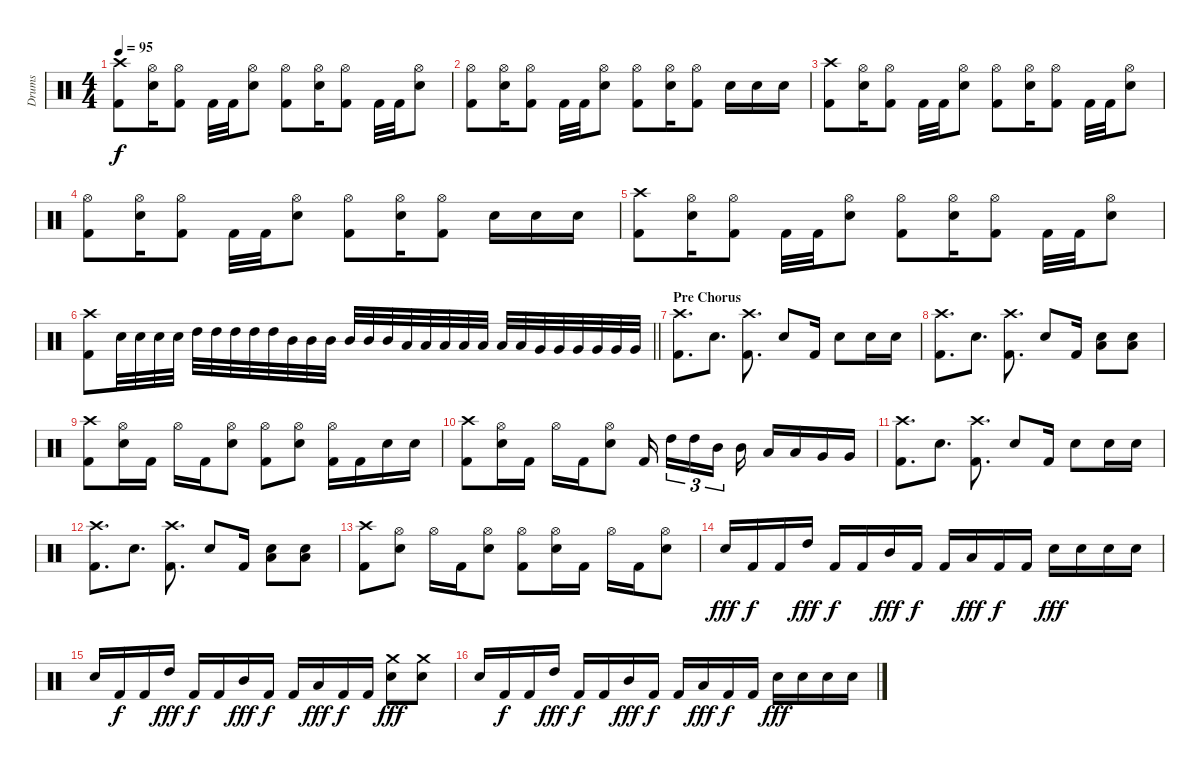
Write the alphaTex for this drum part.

\track ("Drums" "Drums") {instrument percussion}
\staff {score}
\articulation defaults
\ts (4 4)
\tempo 95
\clef neutral
\ks c
("Crash high (hit)" "Kick (hit) 2").8{dy f} ("Hi-Hat (open)" "Snare (hit) 2").16 ("Hi-Hat (open)" "Kick (hit) 2").8 "Kick (hit) 2".32 "Kick (hit) 2".32 ("Hi-Hat (open)" "Snare (hit) 2").8 ("Hi-Hat (open)" "Kick (hit) 2").8 ("Hi-Hat (open)" "Snare (hit) 2").16 ("Hi-Hat (open)" "Kick (hit) 2").8 "Kick (hit) 2".32 "Kick (hit) 2".32 ("Hi-Hat (open)" "Snare (hit) 2").8 |
("Hi-Hat (open)" "Kick (hit) 2").8 ("Hi-Hat (open)" "Snare (hit) 2").16 ("Hi-Hat (open)" "Kick (hit) 2").8 "Kick (hit) 2".32 "Kick (hit) 2".32 ("Hi-Hat (open)" "Snare (hit) 2").8 ("Hi-Hat (open)" "Kick (hit) 2").8 ("Hi-Hat (open)" "Snare (hit) 2").16 ("Hi-Hat (open)" "Kick (hit) 2").8 "Snare (hit) 2".16 "Snare (hit) 2".16 "Snare (hit) 2".16 |
("Crash high (hit)" "Kick (hit) 2").8 ("Hi-Hat (open)" "Snare (hit) 2").16 ("Hi-Hat (open)" "Kick (hit) 2").8 "Kick (hit) 2".32 "Kick (hit) 2".32 ("Hi-Hat (open)" "Snare (hit) 2").8 ("Hi-Hat (open)" "Kick (hit) 2").8 ("Hi-Hat (open)" "Snare (hit) 2").16 ("Hi-Hat (open)" "Kick (hit) 2").8 "Kick (hit) 2".32 "Kick (hit) 2".32 ("Hi-Hat (open)" "Snare (hit) 2").8 |
("Hi-Hat (open)" "Kick (hit) 2").8 ("Hi-Hat (open)" "Snare (hit) 2").16 ("Hi-Hat (open)" "Kick (hit) 2").8 "Kick (hit) 2".32 "Kick (hit) 2".32 ("Hi-Hat (open)" "Snare (hit) 2").8 ("Hi-Hat (open)" "Kick (hit) 2").8 ("Hi-Hat (open)" "Snare (hit) 2").16 ("Hi-Hat (open)" "Kick (hit) 2").8 "Snare (hit) 2".16 "Snare (hit) 2".16 "Snare (hit) 2".16 |
("Crash high (hit)" "Kick (hit) 2").8 ("Hi-Hat (open)" "Snare (hit) 2").16 ("Hi-Hat (open)" "Kick (hit) 2").8 "Kick (hit) 2".32 "Kick (hit) 2".32 ("Hi-Hat (open)" "Snare (hit) 2").8 ("Hi-Hat (open)" "Kick (hit) 2").8 ("Hi-Hat (open)" "Snare (hit) 2").16 ("Hi-Hat (open)" "Kick (hit) 2").8 "Kick (hit) 2".32 "Kick (hit) 2".32 ("Hi-Hat (open)" "Snare (hit) 2").8 |
\barLineRight lightlight
("Kick (hit) 2" "Crash high (hit)").8 "Snare (hit) 2".32 "Snare (hit) 2".32 "Snare (hit) 2".32 "Snare (hit) 2".32 "High Tom (hit)".32 "High Tom (hit)".32 "High Tom (hit)".32 "High Tom (hit)".32 "High Tom (hit)".32 "Mid Tom (hit)".32 "Mid Tom (hit)".32 "Mid Tom (hit)".32 "Mid Tom (hit)".32 "Mid Tom (hit)".32 "Mid Tom (hit)".32 "Low Tom (hit)".32 "Low Tom (hit)".32 "Low Tom (hit)".32 "Low Tom (hit)".32 "Low Tom (hit)".32 "Low Tom (hit)".32 "Low Tom (hit)".32 "Very Low Tom (hit)".32 "Very Low Tom (hit)".32 "Very Low Tom (hit)".32 "Very Low Tom (hit)".32 "Very Low Tom (hit)".32 "Very Low Tom (hit)".32 |
\section ("" "Pre Chorus")
("Kick (hit) 2" "Crash high (hit)").8{d} "Snare (hit) 2".8{d} ("Kick (hit) 2" "Crash high (hit)").8{d} "Snare (hit) 2".8 "Kick (hit) 2".16 "Snare (hit) 2".8 "Snare (hit) 2".16 "Snare (hit) 2".16 |
("Kick (hit) 2" "Crash high (hit)").8{d} "Snare (hit) 2".8{d} ("Kick (hit) 2" "Crash high (hit)").8{d} "Snare (hit) 2".8 "Kick (hit) 2".16 ("Snare (hit) 2" "Low Tom (hit)").8 ("Snare (hit) 2" "Low Tom (hit)").8 |
("Crash high (hit)" "Kick (hit) 2").8 ("Hi-Hat (open)" "Snare (hit) 2").16 "Kick (hit) 2".16 "Hi-Hat (open)".16 "Kick (hit) 2".16 ("Hi-Hat (open)" "Snare (hit) 2").8 ("Hi-Hat (open)" "Kick (hit) 2").8 ("Hi-Hat (open)" "Snare (hit) 2").8 ("Hi-Hat (open)" "Kick (hit) 2").16 "Kick (hit) 2".16 "Snare (hit) 2".16 "Snare (hit) 2".16 |
("Crash high (hit)" "Kick (hit) 2").8 ("Hi-Hat (open)" "Snare (hit) 2").16 "Kick (hit) 2".16 "Hi-Hat (open)".16 "Kick (hit) 2".16 ("Hi-Hat (open)" "Snare (hit) 2").8 "Kick (hit) 2".16{beam splitsecondary} "High Tom (hit)".16{tu (3 2)} "High Tom (hit)".16{tu (3 2)} "Mid Tom (hit)".16{tu (3 2) beam splitsecondary} "Mid Tom (hit)".16 "Low Tom (hit)".16 "Low Tom (hit)".16 "Very Low Tom (hit)".16 "Very Low Tom (hit)".16 |
("Kick (hit) 2" "Crash high (hit)").8{d} "Snare (hit) 2".8{d} ("Kick (hit) 2" "Crash high (hit)").8{d} "Snare (hit) 2".8 "Kick (hit) 2".16 "Snare (hit) 2".8 "Snare (hit) 2".16 "Snare (hit) 2".16 |
("Kick (hit) 2" "Crash high (hit)").8{d} "Snare (hit) 2".8{d} ("Kick (hit) 2" "Crash high (hit)").8{d} "Snare (hit) 2".8 "Kick (hit) 2".16 ("Snare (hit) 2" "Low Tom (hit)").8 ("Snare (hit) 2" "Low Tom (hit)").8 |
("Crash high (hit)" "Kick (hit) 2").8 ("Hi-Hat (open)" "Snare (hit) 2").8 "Hi-Hat (open)".16 "Kick (hit) 2".16 ("Hi-Hat (open)" "Snare (hit) 2").8 ("Hi-Hat (open)" "Kick (hit) 2").8 ("Hi-Hat (open)" "Snare (hit) 2").16 "Kick (hit) 2".16 "Hi-Hat (open)".16 "Kick (hit) 2".16 ("Hi-Hat (open)" "Snare (hit) 2").8 |
"Snare (hit) 2".16{dy fff} "Kick (hit) 2".16{dy f} "Kick (hit) 2".16 "High Tom (hit)".16{dy fff} "Kick (hit) 2".16{dy f} "Kick (hit) 2".16 "Mid Tom (hit)".16{dy fff} "Kick (hit) 2".16{dy f} "Kick (hit) 2".16 "Low Tom (hit)".16{dy fff} "Kick (hit) 2".16{dy f} "Kick (hit) 2".16 "Snare (hit) 2".16{dy fff} "Snare (hit) 2".16 "Snare (hit) 2".16 "Snare (hit) 2".16 |
"Snare (hit) 2".16 "Kick (hit) 2".16{dy f} "Kick (hit) 2".16 "High Tom (hit)".16{dy fff} "Kick (hit) 2".16{dy f} "Kick (hit) 2".16 "Mid Tom (hit)".16{dy fff} "Kick (hit) 2".16{dy f} "Kick (hit) 2".16 "Low Tom (hit)".16{dy fff} "Kick (hit) 2".16{dy f} "Kick (hit) 2".16 ("Snare (hit) 2" "Crash medium (hit)").8{dy fff} ("Snare (hit) 2" "Crash medium (hit)").8 |
"Snare (hit) 2".16 "Kick (hit) 2".16{dy f} "Kick (hit) 2".16 "High Tom (hit)".16{dy fff} "Kick (hit) 2".16{dy f} "Kick (hit) 2".16 "Mid Tom (hit)".16{dy fff} "Kick (hit) 2".16{dy f} "Kick (hit) 2".16 "Low Tom (hit)".16{dy fff} "Kick (hit) 2".16{dy f} "Kick (hit) 2".16 "Snare (hit) 2".16{dy fff} "Snare (hit) 2".16 "Snare (hit) 2".16 "Snare (hit) 2".16
